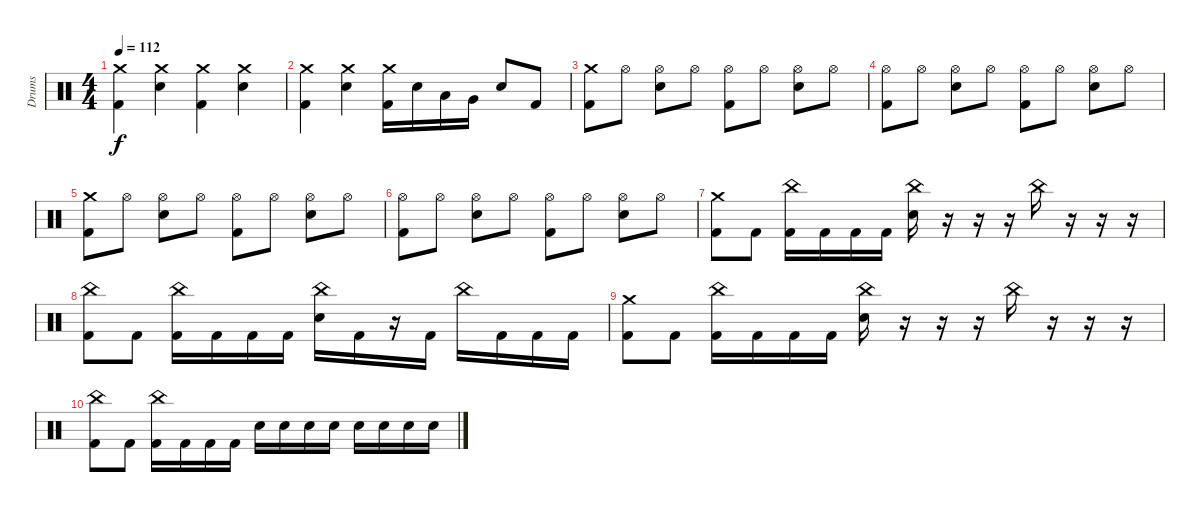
\track ("Drums" "Drums") {instrument percussion}
\staff {score}
\articulation defaults
\ts (4 4)
\tempo 112
\clef neutral
\ks c
("Crash medium (hit)" "Kick (hit) 2").4{dy f} ("Crash medium (hit)" "Electric Snare (hit)").4 ("Crash medium (hit)" "Kick (hit) 2").4 ("Crash medium (hit)" "Electric Snare (hit)").4 |
("Crash medium (hit)" "Kick (hit) 2").4 ("Crash medium (hit)" "Electric Snare (hit)").4 ("Crash medium (hit)" "Kick (hit) 2").16 "Electric Snare (hit)".16 "Low Tom (hit)".16 "Very Low Tom (hit)".16 "Electric Snare (hit)".8 "Kick (hit) 2".8 |
("Crash medium (hit)" "Kick (hit) 2").8 "Hi-Hat (open)".8 ("Hi-Hat (open)" "Electric Snare (hit)").8 "Hi-Hat (open)".8 ("Hi-Hat (open)" "Kick (hit) 2").8 "Hi-Hat (open)".8 ("Hi-Hat (open)" "Electric Snare (hit)").8 "Hi-Hat (open)".8 |
("Hi-Hat (open)" "Kick (hit) 2").8 "Hi-Hat (open)".8 ("Hi-Hat (open)" "Electric Snare (hit)").8 "Hi-Hat (open)".8 ("Hi-Hat (open)" "Kick (hit) 2").8 "Hi-Hat (open)".8 ("Hi-Hat (open)" "Electric Snare (hit)").8 "Hi-Hat (open)".8 |
("Crash medium (hit)" "Kick (hit) 2").8 "Hi-Hat (open)".8 ("Hi-Hat (open)" "Electric Snare (hit)").8 "Hi-Hat (open)".8 ("Hi-Hat (open)" "Kick (hit) 2").8 "Hi-Hat (open)".8 ("Hi-Hat (open)" "Electric Snare (hit)").8 "Hi-Hat (open)".8 |
("Hi-Hat (open)" "Kick (hit) 2").8 "Hi-Hat (open)".8 ("Hi-Hat (open)" "Electric Snare (hit)").8 "Hi-Hat (open)".8 ("Hi-Hat (open)" "Kick (hit) 2").8 "Hi-Hat (open)".8 ("Hi-Hat (open)" "Electric Snare (hit)").8 "Hi-Hat (open)".8 |
("Crash medium (hit)" "Kick (hit) 2").8 "Kick (hit) 2".8 ("China (hit)" "Kick (hit) 2").16 "Kick (hit) 2".16 "Kick (hit) 2".16 "Kick (hit) 2".16 ("China (hit)" "Electric Snare (hit)").16 r.16 r.16 r.16 "China (hit)".16 r.16 r.16 r.16 |
("China (hit)" "Kick (hit) 2").8 "Kick (hit) 2".8 ("China (hit)" "Kick (hit) 2").16 "Kick (hit) 2".16 "Kick (hit) 2".16 "Kick (hit) 2".16 ("China (hit)" "Electric Snare (hit)").16 "Kick (hit) 2".16 r.16 "Kick (hit) 2".16 "China (hit)".16 "Kick (hit) 2".16 "Kick (hit) 2".16 "Kick (hit) 2".16 |
("Crash medium (hit)" "Kick (hit) 2").8 "Kick (hit) 2".8 ("China (hit)" "Kick (hit) 2").16 "Kick (hit) 2".16 "Kick (hit) 2".16 "Kick (hit) 2".16 ("China (hit)" "Electric Snare (hit)").16 r.16 r.16 r.16 "China (hit)".16 r.16 r.16 r.16 |
("China (hit)" "Kick (hit) 2").8 "Kick (hit) 2".8 ("China (hit)" "Kick (hit) 2").16 "Kick (hit) 2".16 "Kick (hit) 2".16 "Kick (hit) 2".16 "Electric Snare (hit)".16 "Electric Snare (hit)".16 "Electric Snare (hit)".16 "Electric Snare (hit)".16 "Electric Snare (hit)".16 "Electric Snare (hit)".16 "Electric Snare (hit)".16 "Electric Snare (hit)".16
